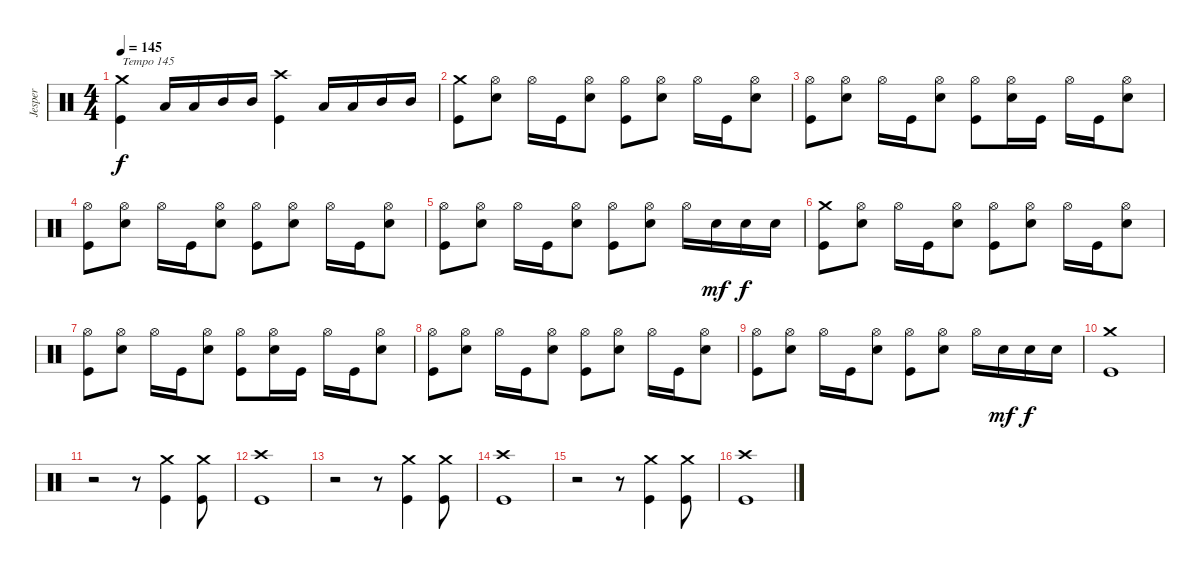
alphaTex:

\track ("Jesper" "Jesper") {instrument percussion}
\staff {score}
\articulation defaults
\ts (4 4)
\tempo 145
\clef neutral
\ks c
("Crash medium (hit)" "Kick (hit)").4{txt "Tempo 145" dy f} "Low Tom (hit)".16 "Low Tom (hit)".16 "Mid Tom (hit)".16 "Mid Tom (hit)".16 ("Crash high (hit)" "Kick (hit)").4 "Low Tom (hit)".16 "Low Tom (hit)".16 "Mid Tom (hit)".16 "Mid Tom (hit)".16 |
("Crash medium (hit)" "Kick (hit)").8 ("Hi-Hat (open)" "Electric Snare (hit)").8 "Hi-Hat (open)".16 "Kick (hit)".16 ("Hi-Hat (open)" "Electric Snare (hit)").8 ("Hi-Hat (open)" "Kick (hit)").8 ("Hi-Hat (open)" "Electric Snare (hit)").8 "Hi-Hat (open)".16 "Kick (hit)".16 ("Hi-Hat (open)" "Electric Snare (hit)").8 |
("Hi-Hat (open)" "Kick (hit)").8 ("Hi-Hat (open)" "Electric Snare (hit)").8 "Hi-Hat (open)".16 "Kick (hit)".16 ("Hi-Hat (open)" "Electric Snare (hit)").8 ("Hi-Hat (open)" "Kick (hit)").8 ("Hi-Hat (open)" "Electric Snare (hit)").16 "Kick (hit)".16 "Hi-Hat (open)".16 "Kick (hit)".16 ("Hi-Hat (open)" "Electric Snare (hit)").8 |
("Hi-Hat (open)" "Kick (hit)").8 ("Hi-Hat (open)" "Electric Snare (hit)").8 "Hi-Hat (open)".16 "Kick (hit)".16 ("Hi-Hat (open)" "Electric Snare (hit)").8 ("Hi-Hat (open)" "Kick (hit)").8 ("Hi-Hat (open)" "Electric Snare (hit)").8 "Hi-Hat (open)".16 "Kick (hit)".16 ("Hi-Hat (open)" "Electric Snare (hit)").8 |
("Hi-Hat (open)" "Kick (hit)").8 ("Hi-Hat (open)" "Electric Snare (hit)").8 "Hi-Hat (open)".16 "Kick (hit)".16 ("Hi-Hat (open)" "Electric Snare (hit)").8 ("Hi-Hat (open)" "Kick (hit)").8 ("Hi-Hat (open)" "Electric Snare (hit)").8 "Hi-Hat (open)".16 "Electric Snare (hit)".16{dy mf} "Electric Snare (hit)".16{dy f} "Electric Snare (hit)".16 |
("Crash medium (hit)" "Kick (hit)").8 ("Hi-Hat (open)" "Electric Snare (hit)").8 "Hi-Hat (open)".16 "Kick (hit)".16 ("Hi-Hat (open)" "Electric Snare (hit)").8 ("Hi-Hat (open)" "Kick (hit)").8 ("Hi-Hat (open)" "Electric Snare (hit)").8 "Hi-Hat (open)".16 "Kick (hit)".16 ("Hi-Hat (open)" "Electric Snare (hit)").8 |
("Hi-Hat (open)" "Kick (hit)").8 ("Hi-Hat (open)" "Electric Snare (hit)").8 "Hi-Hat (open)".16 "Kick (hit)".16 ("Hi-Hat (open)" "Electric Snare (hit)").8 ("Hi-Hat (open)" "Kick (hit)").8 ("Hi-Hat (open)" "Electric Snare (hit)").16 "Kick (hit)".16 "Hi-Hat (open)".16 "Kick (hit)".16 ("Hi-Hat (open)" "Electric Snare (hit)").8 |
("Hi-Hat (open)" "Kick (hit)").8 ("Hi-Hat (open)" "Electric Snare (hit)").8 "Hi-Hat (open)".16 "Kick (hit)".16 ("Hi-Hat (open)" "Electric Snare (hit)").8 ("Hi-Hat (open)" "Kick (hit)").8 ("Hi-Hat (open)" "Electric Snare (hit)").8 "Hi-Hat (open)".16 "Kick (hit)".16 ("Hi-Hat (open)" "Electric Snare (hit)").8 |
("Hi-Hat (open)" "Kick (hit)").8 ("Hi-Hat (open)" "Electric Snare (hit)").8 "Hi-Hat (open)".16 "Kick (hit)".16 ("Hi-Hat (open)" "Electric Snare (hit)").8 ("Hi-Hat (open)" "Kick (hit)").8 ("Hi-Hat (open)" "Electric Snare (hit)").8 "Hi-Hat (open)".16 "Electric Snare (hit)".16{dy mf} "Electric Snare (hit)".16{dy f} "Electric Snare (hit)".16 |
("Crash medium (hit)" "Kick (hit)").1 |
r.2 r.8 ("Crash medium (hit)" "Kick (hit)").4 ("Crash medium (hit)" "Kick (hit)").8 |
("Crash high (hit)" "Kick (hit)").1 |
r.2 r.8 ("Crash medium (hit)" "Kick (hit)").4 ("Crash medium (hit)" "Kick (hit)").8 |
("Crash high (hit)" "Kick (hit)").1 |
r.2 r.8 ("Crash medium (hit)" "Kick (hit)").4 ("Crash medium (hit)" "Kick (hit)").8 |
("Crash high (hit)" "Kick (hit)").1
